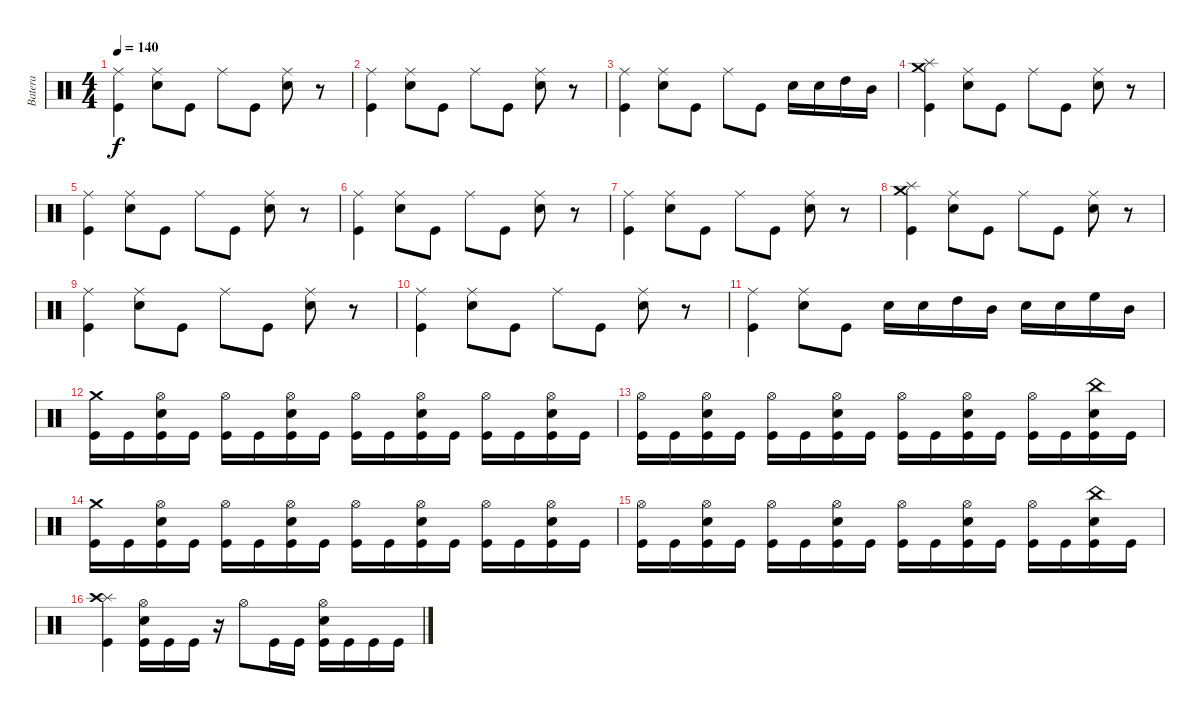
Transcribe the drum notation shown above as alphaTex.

\track ("Batera" "Batera") {instrument percussion}
\staff {score}
\articulation defaults
\ts (4 4)
\tempo 140
\clef neutral
\ks c
("Ride (middle)" "Kick (hit)").4{dy f} ("Ride (middle)" "Snare (hit) 2").8 "Kick (hit)".8 "Ride (middle)".8 "Kick (hit)".8 ("Ride (middle)" "Snare (hit) 2").8 r.8 |
("Ride (middle)" "Kick (hit)").4 ("Ride (middle)" "Snare (hit) 2").8 "Kick (hit)".8 "Ride (middle)".8 "Kick (hit)".8 ("Ride (middle)" "Snare (hit) 2").8 r.8 |
("Ride (middle)" "Kick (hit)").4 ("Ride (middle)" "Snare (hit) 2").8 "Kick (hit)".8 "Ride (middle)".8 "Kick (hit)".8 "Snare (hit) 2".16 "Snare (hit) 2".16 "High Tom (hit)".16 "Mid Tom (hit)".16 |
("Splash (hit)" "Crash medium (hit)" "Kick (hit)").4 ("Ride (middle)" "Snare (hit) 2").8 "Kick (hit)".8 "Ride (middle)".8 "Kick (hit)".8 ("Ride (middle)" "Snare (hit) 2").8 r.8 |
("Ride (middle)" "Kick (hit)").4 ("Ride (middle)" "Snare (hit) 2").8 "Kick (hit)".8 "Ride (middle)".8 "Kick (hit)".8 ("Ride (middle)" "Snare (hit) 2").8 r.8 |
("Ride (middle)" "Kick (hit)").4 ("Ride (middle)" "Snare (hit) 2").8 "Kick (hit)".8 "Ride (middle)".8 "Kick (hit)".8 ("Ride (middle)" "Snare (hit) 2").8 r.8 |
("Ride (middle)" "Kick (hit)").4 ("Ride (middle)" "Snare (hit) 2").8 "Kick (hit)".8 "Ride (middle)".8 "Kick (hit)".8 ("Ride (middle)" "Snare (hit) 2").8 r.8 |
("Splash (hit)" "Crash medium (hit)" "Kick (hit)").4 ("Ride (middle)" "Snare (hit) 2").8 "Kick (hit)".8 "Ride (middle)".8 "Kick (hit)".8 ("Ride (middle)" "Snare (hit) 2").8 r.8 |
("Ride (middle)" "Kick (hit)").4 ("Ride (middle)" "Snare (hit) 2").8 "Kick (hit)".8 "Ride (middle)".8 "Kick (hit)".8 ("Ride (middle)" "Snare (hit) 2").8 r.8 |
("Ride (middle)" "Kick (hit)").4 ("Ride (middle)" "Snare (hit) 2").8 "Kick (hit)".8 "Ride (middle)".8 "Kick (hit)".8 ("Ride (middle)" "Snare (hit) 2").8 r.8 |
("Ride (middle)" "Kick (hit)").4 ("Ride (middle)" "Snare (hit) 2").8 "Kick (hit)".8 "Snare (hit) 2".16 "Snare (hit) 2".16 "High Tom (hit)".16 "Mid Tom (hit)".16 "Snare (hit) 2".16 "Snare (hit) 2".16 "High Floor Tom (hit)".16 "Mid Tom (hit)".16 |
("Crash medium (hit)" "Kick (hit)").16 "Kick (hit)".16 ("Hi-Hat (open)" "Snare (hit) 2" "Kick (hit)").16 "Kick (hit)".16 ("Hi-Hat (open)" "Kick (hit)").16 "Kick (hit)".16 ("Hi-Hat (open)" "Snare (hit) 2" "Kick (hit)").16 "Kick (hit)".16 ("Hi-Hat (open)" "Kick (hit)").16 "Kick (hit)".16 ("Hi-Hat (open)" "Snare (hit) 2" "Kick (hit)").16 "Kick (hit)".16 ("Hi-Hat (open)" "Kick (hit)").16 "Kick (hit)".16 ("Hi-Hat (open)" "Snare (hit) 2" "Kick (hit)").16 "Kick (hit)".16 |
("Hi-Hat (open)" "Kick (hit)").16 "Kick (hit)".16 ("Hi-Hat (open)" "Snare (hit) 2" "Kick (hit)").16 "Kick (hit)".16 ("Hi-Hat (open)" "Kick (hit)").16 "Kick (hit)".16 ("Hi-Hat (open)" "Snare (hit) 2" "Kick (hit)").16 "Kick (hit)".16 ("Hi-Hat (open)" "Kick (hit)").16 "Kick (hit)".16 ("Hi-Hat (open)" "Snare (hit) 2" "Kick (hit)").16 "Kick (hit)".16 ("Hi-Hat (open)" "Kick (hit)").16 "Kick (hit)".16 ("China (hit)" "Snare (hit) 2" "Kick (hit)").16 "Kick (hit)".16 |
("Crash medium (hit)" "Kick (hit)").16 "Kick (hit)".16 ("Hi-Hat (open)" "Snare (hit) 2" "Kick (hit)").16 "Kick (hit)".16 ("Hi-Hat (open)" "Kick (hit)").16 "Kick (hit)".16 ("Hi-Hat (open)" "Snare (hit) 2" "Kick (hit)").16 "Kick (hit)".16 ("Hi-Hat (open)" "Kick (hit)").16 "Kick (hit)".16 ("Hi-Hat (open)" "Snare (hit) 2" "Kick (hit)").16 "Kick (hit)".16 ("Hi-Hat (open)" "Kick (hit)").16 "Kick (hit)".16 ("Hi-Hat (open)" "Snare (hit) 2" "Kick (hit)").16 "Kick (hit)".16 |
("Hi-Hat (open)" "Kick (hit)").16 "Kick (hit)".16 ("Hi-Hat (open)" "Snare (hit) 2" "Kick (hit)").16 "Kick (hit)".16 ("Hi-Hat (open)" "Kick (hit)").16 "Kick (hit)".16 ("Hi-Hat (open)" "Snare (hit) 2" "Kick (hit)").16 "Kick (hit)".16 ("Hi-Hat (open)" "Kick (hit)").16 "Kick (hit)".16 ("Hi-Hat (open)" "Snare (hit) 2" "Kick (hit)").16 "Kick (hit)".16 ("Hi-Hat (open)" "Kick (hit)").16 "Kick (hit)".16 ("China (hit)" "Snare (hit) 2" "Kick (hit)").16 "Kick (hit)".16 |
("Splash (hit)" "Crash high (hit)" "Kick (hit)").4 ("Hi-Hat (open)" "Snare (hit) 2" "Kick (hit)").16 "Kick (hit)".16 "Kick (hit)".16 r.16 "Hi-Hat (open)".8 "Kick (hit)".16 "Kick (hit)".16 ("Hi-Hat (open)" "Snare (hit) 2" "Kick (hit)").16 "Kick (hit)".16 "Kick (hit)".16 "Kick (hit)".16
